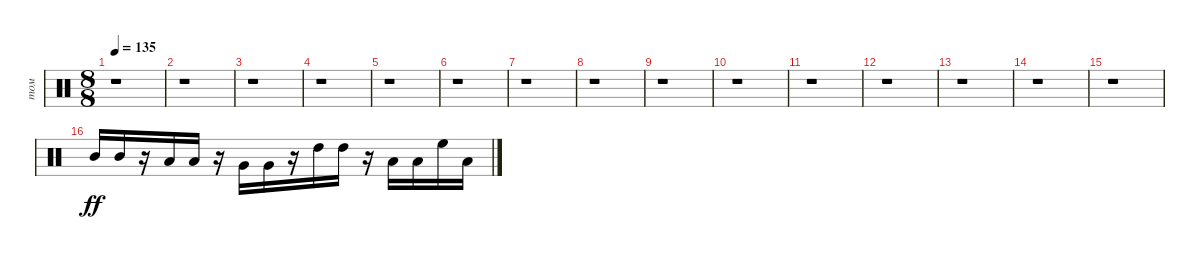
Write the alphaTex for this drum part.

\track ("том" "том") {instrument percussion}
\staff {score}
\articulation defaults
\ts (8 8)
\tempo 135
\clef neutral
\ks c
r.1{dy ff} |
r.1 |
r.1 |
r.1 |
r.1 |
r.1 |
r.1 |
r.1 |
r.1 |
r.1 |
r.1 |
r.1 |
r.1 |
r.1 |
r.1 |
"Mid Tom (hit)".16 "Mid Tom (hit)".16 r.16 "Low Tom (hit)".16 "Low Tom (hit)".16 r.16 "Very Low Tom (hit)".16 "Very Low Tom (hit)".16 r.16 "High Tom (hit)".16 "High Tom (hit)".16 r.16 "Low Floor Tom (hit)".16 "Low Floor Tom (hit)".16 "High Floor Tom (hit)".16 "Low Floor Tom (hit)".16
